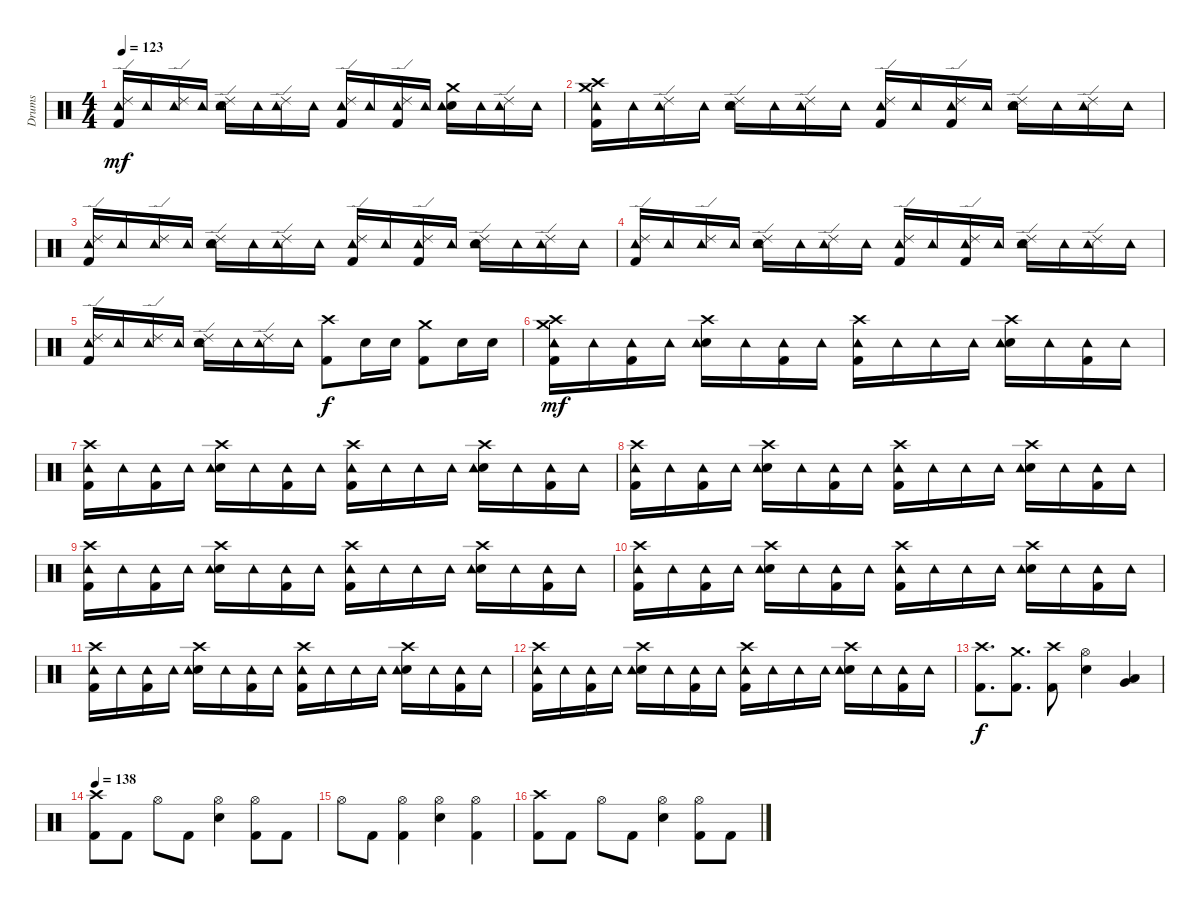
\track ("Drums" "Drums") {instrument percussion}
\staff {score}
\articulation defaults
\ts (4 4)
\tempo 123
\clef neutral
\ks c
("Ride (edge) 2" "Tambourine (hit)" "Kick (hit) 2").16{dy mf} "Tambourine (hit)".16 ("Ride (edge) 2" "Tambourine (hit)").16 "Tambourine (hit)".16 ("Ride (edge) 2" "Electric Snare (hit)" "Tambourine (hit)").16 "Tambourine (hit)".16 ("Ride (edge) 2" "Tambourine (hit)").16 "Tambourine (hit)".16 ("Ride (edge) 2" "Tambourine (hit)" "Kick (hit) 2").16 "Tambourine (hit)".16 ("Ride (edge) 2" "Tambourine (hit)" "Kick (hit) 2").16 "Tambourine (hit)".16 ("Crash medium (hit)" "Electric Snare (hit)" "Tambourine (hit)").16 "Tambourine (hit)".16 ("Ride (edge) 2" "Tambourine (hit)").16 "Tambourine (hit)".16 |
("Crash high (hit)" "Crash medium (hit)" "Tambourine (hit)" "Kick (hit) 2").16 "Tambourine (hit)".16 ("Ride (edge) 2" "Tambourine (hit)").16 "Tambourine (hit)".16 ("Ride (edge) 2" "Electric Snare (hit)" "Tambourine (hit)").16 "Tambourine (hit)".16 ("Ride (edge) 2" "Tambourine (hit)").16 "Tambourine (hit)".16 ("Ride (edge) 2" "Tambourine (hit)" "Kick (hit) 2").16 "Tambourine (hit)".16 ("Ride (edge) 2" "Tambourine (hit)" "Kick (hit) 2").16 "Tambourine (hit)".16 ("Ride (edge) 2" "Electric Snare (hit)" "Tambourine (hit)").16 "Tambourine (hit)".16 ("Ride (edge) 2" "Tambourine (hit)").16 "Tambourine (hit)".16 |
("Ride (edge) 2" "Tambourine (hit)" "Kick (hit) 2").16 "Tambourine (hit)".16 ("Ride (edge) 2" "Tambourine (hit)").16 "Tambourine (hit)".16 ("Ride (edge) 2" "Electric Snare (hit)" "Tambourine (hit)").16 "Tambourine (hit)".16 ("Ride (edge) 2" "Tambourine (hit)").16 "Tambourine (hit)".16 ("Ride (edge) 2" "Tambourine (hit)" "Kick (hit) 2").16 "Tambourine (hit)".16 ("Ride (edge) 2" "Tambourine (hit)" "Kick (hit) 2").16 "Tambourine (hit)".16 ("Ride (edge) 2" "Electric Snare (hit)" "Tambourine (hit)").16 "Tambourine (hit)".16 ("Ride (edge) 2" "Tambourine (hit)").16 "Tambourine (hit)".16 |
("Ride (edge) 2" "Tambourine (hit)" "Kick (hit) 2").16 "Tambourine (hit)".16 ("Ride (edge) 2" "Tambourine (hit)").16 "Tambourine (hit)".16 ("Ride (edge) 2" "Electric Snare (hit)" "Tambourine (hit)").16 "Tambourine (hit)".16 ("Ride (edge) 2" "Tambourine (hit)").16 "Tambourine (hit)".16 ("Ride (edge) 2" "Tambourine (hit)" "Kick (hit) 2").16 "Tambourine (hit)".16 ("Ride (edge) 2" "Tambourine (hit)" "Kick (hit) 2").16 "Tambourine (hit)".16 ("Ride (edge) 2" "Electric Snare (hit)" "Tambourine (hit)").16 "Tambourine (hit)".16 ("Ride (edge) 2" "Tambourine (hit)").16 "Tambourine (hit)".16 |
("Ride (edge) 2" "Tambourine (hit)" "Kick (hit) 2").16 "Tambourine (hit)".16 ("Ride (edge) 2" "Tambourine (hit)").16 "Tambourine (hit)".16 ("Ride (edge) 2" "Electric Snare (hit)" "Tambourine (hit)").16 "Tambourine (hit)".16 ("Ride (edge) 2" "Tambourine (hit)").16 "Tambourine (hit)".16 ("Crash high (hit)" "Kick (hit) 2").8{dy f} "Electric Snare (hit)".16 "Electric Snare (hit)".16 ("Crash medium (hit)" "Kick (hit) 2").8 "Electric Snare (hit)".16 "Electric Snare (hit)".16 |
("Crash high (hit)" "Crash medium (hit)" "Tambourine (hit)" "Kick (hit) 2").16{dy mf} "Tambourine (hit)".16 ("Tambourine (hit)" "Kick (hit) 2").16 "Tambourine (hit)".16 ("Crash high (hit)" "Electric Snare (hit)" "Tambourine (hit)").16 "Tambourine (hit)".16 ("Tambourine (hit)" "Kick (hit) 2").16 "Tambourine (hit)".16 ("Crash high (hit)" "Tambourine (hit)" "Kick (hit) 2").16 "Tambourine (hit)".16 "Tambourine (hit)".16 "Tambourine (hit)".16 ("Crash high (hit)" "Electric Snare (hit)" "Tambourine (hit)").16 "Tambourine (hit)".16 ("Tambourine (hit)" "Kick (hit) 2").16 "Tambourine (hit)".16 |
("Crash high (hit)" "Tambourine (hit)" "Kick (hit) 2").16 "Tambourine (hit)".16 ("Tambourine (hit)" "Kick (hit) 2").16 "Tambourine (hit)".16 ("Crash high (hit)" "Electric Snare (hit)" "Tambourine (hit)").16 "Tambourine (hit)".16 ("Tambourine (hit)" "Kick (hit) 2").16 "Tambourine (hit)".16 ("Crash high (hit)" "Tambourine (hit)" "Kick (hit) 2").16 "Tambourine (hit)".16 "Tambourine (hit)".16 "Tambourine (hit)".16 ("Crash high (hit)" "Electric Snare (hit)" "Tambourine (hit)").16 "Tambourine (hit)".16 ("Tambourine (hit)" "Kick (hit) 2").16 "Tambourine (hit)".16 |
("Crash high (hit)" "Tambourine (hit)" "Kick (hit) 2").16 "Tambourine (hit)".16 ("Tambourine (hit)" "Kick (hit) 2").16 "Tambourine (hit)".16 ("Crash high (hit)" "Electric Snare (hit)" "Tambourine (hit)").16 "Tambourine (hit)".16 ("Tambourine (hit)" "Kick (hit) 2").16 "Tambourine (hit)".16 ("Crash high (hit)" "Tambourine (hit)" "Kick (hit) 2").16 "Tambourine (hit)".16 "Tambourine (hit)".16 "Tambourine (hit)".16 ("Crash high (hit)" "Electric Snare (hit)" "Tambourine (hit)").16 "Tambourine (hit)".16 ("Tambourine (hit)" "Kick (hit) 2").16 "Tambourine (hit)".16 |
("Crash high (hit)" "Tambourine (hit)" "Kick (hit) 2").16 "Tambourine (hit)".16 ("Tambourine (hit)" "Kick (hit) 2").16 "Tambourine (hit)".16 ("Crash high (hit)" "Electric Snare (hit)" "Tambourine (hit)").16 "Tambourine (hit)".16 ("Tambourine (hit)" "Kick (hit) 2").16 "Tambourine (hit)".16 ("Crash high (hit)" "Tambourine (hit)" "Kick (hit) 2").16 "Tambourine (hit)".16 "Tambourine (hit)".16 "Tambourine (hit)".16 ("Crash high (hit)" "Electric Snare (hit)" "Tambourine (hit)").16 "Tambourine (hit)".16 ("Tambourine (hit)" "Kick (hit) 2").16 "Tambourine (hit)".16 |
("Crash high (hit)" "Tambourine (hit)" "Kick (hit) 2").16 "Tambourine (hit)".16 ("Tambourine (hit)" "Kick (hit) 2").16 "Tambourine (hit)".16 ("Crash high (hit)" "Electric Snare (hit)" "Tambourine (hit)").16 "Tambourine (hit)".16 ("Tambourine (hit)" "Kick (hit) 2").16 "Tambourine (hit)".16 ("Crash high (hit)" "Tambourine (hit)" "Kick (hit) 2").16 "Tambourine (hit)".16 "Tambourine (hit)".16 "Tambourine (hit)".16 ("Crash high (hit)" "Electric Snare (hit)" "Tambourine (hit)").16 "Tambourine (hit)".16 ("Tambourine (hit)" "Kick (hit) 2").16 "Tambourine (hit)".16 |
("Crash high (hit)" "Tambourine (hit)" "Kick (hit) 2").16 "Tambourine (hit)".16 ("Tambourine (hit)" "Kick (hit) 2").16 "Tambourine (hit)".16 ("Crash high (hit)" "Electric Snare (hit)" "Tambourine (hit)").16 "Tambourine (hit)".16 ("Tambourine (hit)" "Kick (hit) 2").16 "Tambourine (hit)".16 ("Crash high (hit)" "Tambourine (hit)" "Kick (hit) 2").16 "Tambourine (hit)".16 "Tambourine (hit)".16 "Tambourine (hit)".16 ("Crash high (hit)" "Electric Snare (hit)" "Tambourine (hit)").16 "Tambourine (hit)".16 ("Tambourine (hit)" "Kick (hit) 2").16 "Tambourine (hit)".16 |
("Crash high (hit)" "Tambourine (hit)" "Kick (hit) 2").16 "Tambourine (hit)".16 ("Tambourine (hit)" "Kick (hit) 2").16 "Tambourine (hit)".16 ("Crash high (hit)" "Electric Snare (hit)" "Tambourine (hit)").16 "Tambourine (hit)".16 ("Tambourine (hit)" "Kick (hit) 2").16 "Tambourine (hit)".16 ("Crash high (hit)" "Tambourine (hit)" "Kick (hit) 2").16 "Tambourine (hit)".16 "Tambourine (hit)".16 "Tambourine (hit)".16 ("Crash high (hit)" "Electric Snare (hit)" "Tambourine (hit)").16 "Tambourine (hit)".16 ("Tambourine (hit)" "Kick (hit) 2").16 "Tambourine (hit)".16 |
("Crash high (hit)" "Kick (hit) 2").8{d dy f} ("Crash medium (hit)" "Kick (hit) 2").8{d} ("Crash high (hit)" "Kick (hit) 2").8 ("Hi-Hat (open)" "Electric Snare (hit)").4 ("Low Tom (hit)" "Very Low Tom (hit)").4 |
\tempo 138
("Crash high (hit)" "Kick (hit) 2").8 "Kick (hit) 2".8 "Hi-Hat (open)".8 "Kick (hit) 2".8 ("Hi-Hat (open)" "Electric Snare (hit)").4 ("Hi-Hat (open)" "Kick (hit) 2").8 "Kick (hit) 2".8 |
"Hi-Hat (open)".8 "Kick (hit) 2".8 ("Hi-Hat (open)" "Kick (hit) 2").4 ("Hi-Hat (open)" "Electric Snare (hit)").4 ("Hi-Hat (open)" "Kick (hit) 2").4 |
("Crash high (hit)" "Kick (hit) 2").8 "Kick (hit) 2".8 "Hi-Hat (open)".8 "Kick (hit) 2".8 ("Hi-Hat (open)" "Electric Snare (hit)").4 ("Hi-Hat (open)" "Kick (hit) 2").8 "Kick (hit) 2".8
